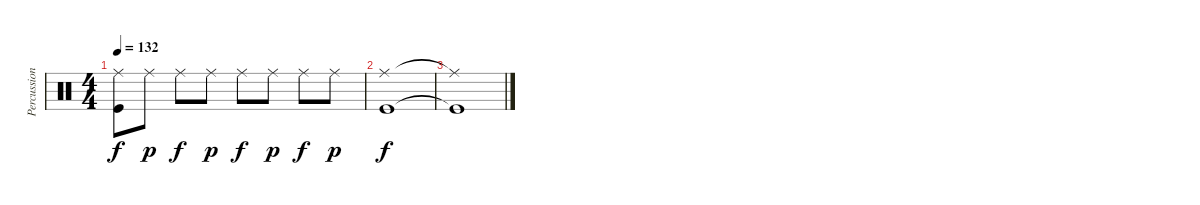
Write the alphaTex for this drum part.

\track ("Percussions" "Percussion") {instrument percussion}
\staff {score}
\articulation defaults
\ts (4 4)
\tempo 132
\clef neutral
\ks c
("Kick (hit)" "Ride (middle)").8{dy f} "Ride (middle)".8{dy p} "Ride (middle)".8{dy f} "Ride (middle)".8{dy p} "Ride (middle)".8{dy f} "Ride (middle)".8{dy p} "Ride (middle)".8{dy f} "Ride (middle)".8{dy p} |
("Ride (middle)" "Kick (hit)").1{dy f} |
("Ride (middle)"{t} "Kick (hit)"{t}).1
